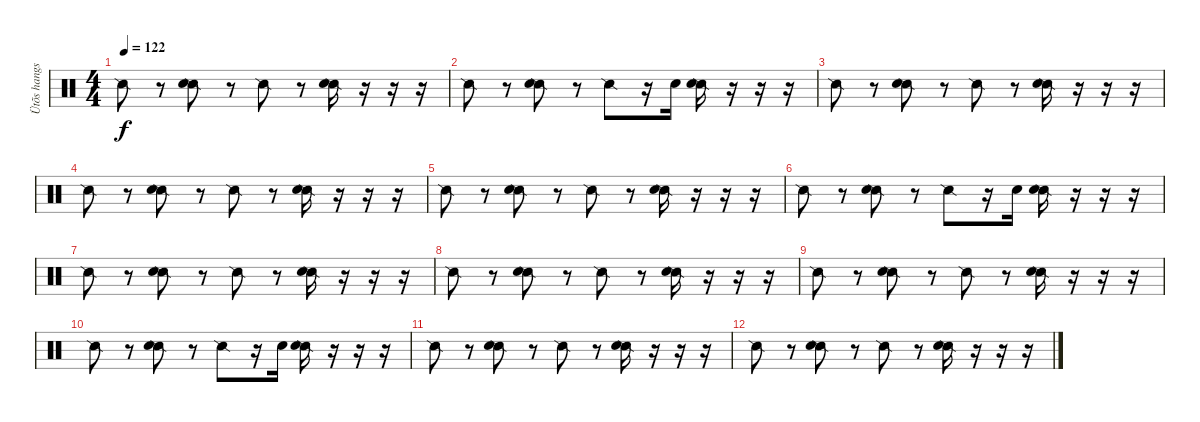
\track ("Ütõs hangszer" "Ütõs hangs") {instrument percussion}
\staff {score}
\articulation defaults
\ts (4 4)
\tempo 122
\clef neutral
\ks c "Snare (side stick) 2".8{dy f}
r.8 ("Snare (side stick) 2" "Hand Clap (hit)").8 r.8 "Snare (side stick) 2".8 r.8 ("Snare (side stick) 2" "Hand Clap (hit)").16 r.16 r.16 r.16 |
"Snare (side stick) 2".8 r.8 ("Snare (side stick) 2" "Hand Clap (hit)").8 r.8 "Snare (side stick) 2".8 r.16 "Hand Clap (hit)".16 ("Snare (side stick) 2" "Hand Clap (hit)").16 r.16 r.16 r.16 |
"Snare (side stick) 2".8 r.8 ("Snare (side stick) 2" "Hand Clap (hit)").8 r.8 "Snare (side stick) 2".8 r.8 ("Snare (side stick) 2" "Hand Clap (hit)").16 r.16 r.16 r.16 |
"Snare (side stick) 2".8 r.8 ("Snare (side stick) 2" "Hand Clap (hit)").8 r.8 "Snare (side stick) 2".8 r.8 ("Snare (side stick) 2" "Hand Clap (hit)").16 r.16 r.16 r.16 |
"Snare (side stick) 2".8 r.8 ("Snare (side stick) 2" "Hand Clap (hit)").8 r.8 "Snare (side stick) 2".8 r.8 ("Snare (side stick) 2" "Hand Clap (hit)").16 r.16 r.16 r.16 |
"Snare (side stick) 2".8 r.8 ("Snare (side stick) 2" "Hand Clap (hit)").8 r.8 "Snare (side stick) 2".8 r.16 "Hand Clap (hit)".16 ("Snare (side stick) 2" "Hand Clap (hit)").16 r.16 r.16 r.16 |
"Snare (side stick) 2".8 r.8 ("Snare (side stick) 2" "Hand Clap (hit)").8 r.8 "Snare (side stick) 2".8 r.8 ("Snare (side stick) 2" "Hand Clap (hit)").16 r.16 r.16 r.16 |
"Snare (side stick) 2".8 r.8 ("Snare (side stick) 2" "Hand Clap (hit)").8 r.8 "Snare (side stick) 2".8 r.8 ("Snare (side stick) 2" "Hand Clap (hit)").16 r.16 r.16 r.16 |
"Snare (side stick) 2".8 r.8 ("Snare (side stick) 2" "Hand Clap (hit)").8 r.8 "Snare (side stick) 2".8 r.8 ("Snare (side stick) 2" "Hand Clap (hit)").16 r.16 r.16 r.16 |
"Snare (side stick) 2".8 r.8 ("Snare (side stick) 2" "Hand Clap (hit)").8 r.8 "Snare (side stick) 2".8 r.16 "Hand Clap (hit)".16 ("Snare (side stick) 2" "Hand Clap (hit)").16 r.16 r.16 r.16 |
"Snare (side stick) 2".8 r.8 ("Snare (side stick) 2" "Hand Clap (hit)").8 r.8 "Snare (side stick) 2".8 r.8 ("Snare (side stick) 2" "Hand Clap (hit)").16 r.16 r.16 r.16 |
"Snare (side stick) 2".8 r.8 ("Snare (side stick) 2" "Hand Clap (hit)").8 r.8 "Snare (side stick) 2".8 r.8 ("Snare (side stick) 2" "Hand Clap (hit)").16 r.16 r.16 r.16
